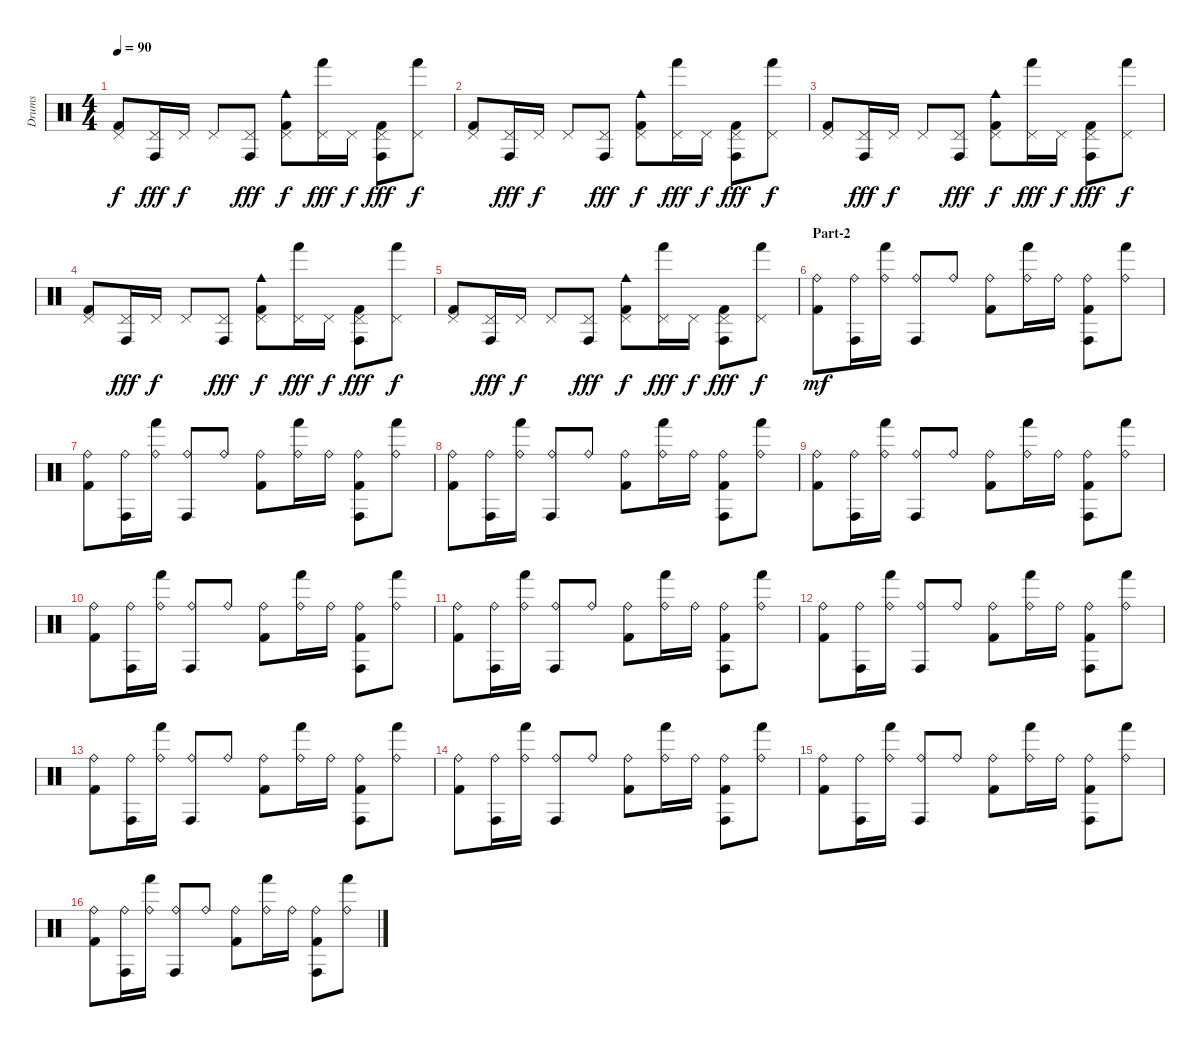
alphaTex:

\track (" Drums" " Drums") {instrument percussion}
\staff {score}
\articulation defaults
\ts (4 4)
\tempo 90
\clef neutral
\ks c
("Pedal Hi-Hat (hit)" "Kick (hit) 2").8{dy f} ("Pedal Hi-Hat (hit)" "Conga high (hit)").16{dy fff} "Pedal Hi-Hat (hit)".16{dy f} "Pedal Hi-Hat (hit)".8 ("Pedal Hi-Hat (hit)" "Conga high (hit)").8{dy fff} ("Pedal Hi-Hat (hit)" "Cowbell medium (hit)" "Kick (hit) 2").8{dy f} ("Pedal Hi-Hat (hit)" "Hand (hit)").16{dy fff} "Pedal Hi-Hat (hit)".16{dy f} ("Pedal Hi-Hat (hit)" "Conga high (hit)" "Kick (hit) 2").8{dy fff} ("Pedal Hi-Hat (hit)" "Hand (hit)").8{dy f} |
("Pedal Hi-Hat (hit)" "Kick (hit) 2").8 ("Pedal Hi-Hat (hit)" "Conga high (hit)").16{dy fff} "Pedal Hi-Hat (hit)".16{dy f} "Pedal Hi-Hat (hit)".8 ("Pedal Hi-Hat (hit)" "Conga high (hit)").8{dy fff} ("Pedal Hi-Hat (hit)" "Cowbell medium (hit)" "Kick (hit) 2").8{dy f} ("Pedal Hi-Hat (hit)" "Hand (hit)").16{dy fff} "Pedal Hi-Hat (hit)".16{dy f} ("Pedal Hi-Hat (hit)" "Conga high (hit)" "Kick (hit) 2").8{dy fff} ("Pedal Hi-Hat (hit)" "Hand (hit)").8{dy f} |
("Pedal Hi-Hat (hit)" "Kick (hit) 2").8 ("Pedal Hi-Hat (hit)" "Conga high (hit)").16{dy fff} "Pedal Hi-Hat (hit)".16{dy f} "Pedal Hi-Hat (hit)".8 ("Pedal Hi-Hat (hit)" "Conga high (hit)").8{dy fff} ("Pedal Hi-Hat (hit)" "Cowbell medium (hit)" "Kick (hit) 2").8{dy f} ("Pedal Hi-Hat (hit)" "Hand (hit)").16{dy fff} "Pedal Hi-Hat (hit)".16{dy f} ("Pedal Hi-Hat (hit)" "Conga high (hit)" "Kick (hit) 2").8{dy fff} ("Pedal Hi-Hat (hit)" "Hand (hit)").8{dy f} |
("Pedal Hi-Hat (hit)" "Kick (hit) 2").8 ("Pedal Hi-Hat (hit)" "Conga high (hit)").16{dy fff} "Pedal Hi-Hat (hit)".16{dy f} "Pedal Hi-Hat (hit)".8 ("Pedal Hi-Hat (hit)" "Conga high (hit)").8{dy fff} ("Pedal Hi-Hat (hit)" "Cowbell medium (hit)" "Kick (hit) 2").8{dy f} ("Pedal Hi-Hat (hit)" "Hand (hit)").16{dy fff} "Pedal Hi-Hat (hit)".16{dy f} ("Pedal Hi-Hat (hit)" "Conga high (hit)" "Kick (hit) 2").8{dy fff} ("Pedal Hi-Hat (hit)" "Hand (hit)").8{dy f} |
("Pedal Hi-Hat (hit)" "Kick (hit) 2").8 ("Pedal Hi-Hat (hit)" "Conga high (hit)").16{dy fff} "Pedal Hi-Hat (hit)".16{dy f} "Pedal Hi-Hat (hit)".8 ("Pedal Hi-Hat (hit)" "Conga high (hit)").8{dy fff} ("Pedal Hi-Hat (hit)" "Cowbell medium (hit)" "Kick (hit) 2").8{dy f} ("Pedal Hi-Hat (hit)" "Hand (hit)").16{dy fff} "Pedal Hi-Hat (hit)".16{dy f} ("Pedal Hi-Hat (hit)" "Conga high (hit)" "Kick (hit) 2").8{dy fff} ("Pedal Hi-Hat (hit)" "Hand (hit)").8{dy f} |
\section ("" "Part-2")
("Ride (bell)" "Kick (hit) 2").8{dy mf} ("Ride (bell)" "Conga high (hit)").16 ("Ride (bell)" "Hand (hit)").16 ("Ride (bell)" "Conga high (hit)").8 "Ride (bell)".8 ("Ride (bell)" "Kick (hit) 2").8 ("Ride (bell)" "Hand (hit)").16 "Ride (bell)".16 ("Ride (bell)" "Conga high (hit)" "Kick (hit) 2").8 ("Ride (bell)" "Hand (hit)").8 |
("Ride (bell)" "Kick (hit) 2").8 ("Ride (bell)" "Conga high (hit)").16 ("Ride (bell)" "Hand (hit)").16 ("Ride (bell)" "Conga high (hit)").8 "Ride (bell)".8 ("Ride (bell)" "Kick (hit) 2").8 ("Ride (bell)" "Hand (hit)").16 "Ride (bell)".16 ("Ride (bell)" "Conga high (hit)" "Kick (hit) 2").8 ("Ride (bell)" "Hand (hit)").8 |
("Ride (bell)" "Kick (hit) 2").8 ("Ride (bell)" "Conga high (hit)").16 ("Ride (bell)" "Hand (hit)").16 ("Ride (bell)" "Conga high (hit)").8 "Ride (bell)".8 ("Ride (bell)" "Kick (hit) 2").8 ("Ride (bell)" "Hand (hit)").16 "Ride (bell)".16 ("Ride (bell)" "Conga high (hit)" "Kick (hit) 2").8 ("Ride (bell)" "Hand (hit)").8 |
("Ride (bell)" "Kick (hit) 2").8 ("Ride (bell)" "Conga high (hit)").16 ("Ride (bell)" "Hand (hit)").16 ("Ride (bell)" "Conga high (hit)").8 "Ride (bell)".8 ("Ride (bell)" "Kick (hit) 2").8 ("Ride (bell)" "Hand (hit)").16 "Ride (bell)".16 ("Ride (bell)" "Conga high (hit)" "Kick (hit) 2").8 ("Ride (bell)" "Hand (hit)").8 |
("Ride (bell)" "Kick (hit) 2").8 ("Ride (bell)" "Conga high (hit)").16 ("Ride (bell)" "Hand (hit)").16 ("Ride (bell)" "Conga high (hit)").8 "Ride (bell)".8 ("Ride (bell)" "Kick (hit) 2").8 ("Ride (bell)" "Hand (hit)").16 "Ride (bell)".16 ("Ride (bell)" "Conga high (hit)" "Kick (hit) 2").8 ("Ride (bell)" "Hand (hit)").8 |
("Ride (bell)" "Kick (hit) 2").8 ("Ride (bell)" "Conga high (hit)").16 ("Ride (bell)" "Hand (hit)").16 ("Ride (bell)" "Conga high (hit)").8 "Ride (bell)".8 ("Ride (bell)" "Kick (hit) 2").8 ("Ride (bell)" "Hand (hit)").16 "Ride (bell)".16 ("Ride (bell)" "Conga high (hit)" "Kick (hit) 2").8 ("Ride (bell)" "Hand (hit)").8 |
("Ride (bell)" "Kick (hit) 2").8 ("Ride (bell)" "Conga high (hit)").16 ("Ride (bell)" "Hand (hit)").16 ("Ride (bell)" "Conga high (hit)").8 "Ride (bell)".8 ("Ride (bell)" "Kick (hit) 2").8 ("Ride (bell)" "Hand (hit)").16 "Ride (bell)".16 ("Ride (bell)" "Conga high (hit)" "Kick (hit) 2").8 ("Ride (bell)" "Hand (hit)").8 |
("Ride (bell)" "Kick (hit) 2").8 ("Ride (bell)" "Conga high (hit)").16 ("Ride (bell)" "Hand (hit)").16 ("Ride (bell)" "Conga high (hit)").8 "Ride (bell)".8 ("Ride (bell)" "Kick (hit) 2").8 ("Ride (bell)" "Hand (hit)").16 "Ride (bell)".16 ("Ride (bell)" "Conga high (hit)" "Kick (hit) 2").8 ("Ride (bell)" "Hand (hit)").8 |
("Ride (bell)" "Kick (hit) 2").8 ("Ride (bell)" "Conga high (hit)").16 ("Ride (bell)" "Hand (hit)").16 ("Ride (bell)" "Conga high (hit)").8 "Ride (bell)".8 ("Ride (bell)" "Kick (hit) 2").8 ("Ride (bell)" "Hand (hit)").16 "Ride (bell)".16 ("Ride (bell)" "Conga high (hit)" "Kick (hit) 2").8 ("Ride (bell)" "Hand (hit)").8 |
("Ride (bell)" "Kick (hit) 2").8 ("Ride (bell)" "Conga high (hit)").16 ("Ride (bell)" "Hand (hit)").16 ("Ride (bell)" "Conga high (hit)").8 "Ride (bell)".8 ("Ride (bell)" "Kick (hit) 2").8 ("Ride (bell)" "Hand (hit)").16 "Ride (bell)".16 ("Ride (bell)" "Conga high (hit)" "Kick (hit) 2").8 ("Ride (bell)" "Hand (hit)").8 |
("Ride (bell)" "Kick (hit) 2").8 ("Ride (bell)" "Conga high (hit)").16 ("Ride (bell)" "Hand (hit)").16 ("Ride (bell)" "Conga high (hit)").8 "Ride (bell)".8 ("Ride (bell)" "Kick (hit) 2").8 ("Ride (bell)" "Hand (hit)").16 "Ride (bell)".16 ("Ride (bell)" "Conga high (hit)" "Kick (hit) 2").8 ("Ride (bell)" "Hand (hit)").8
